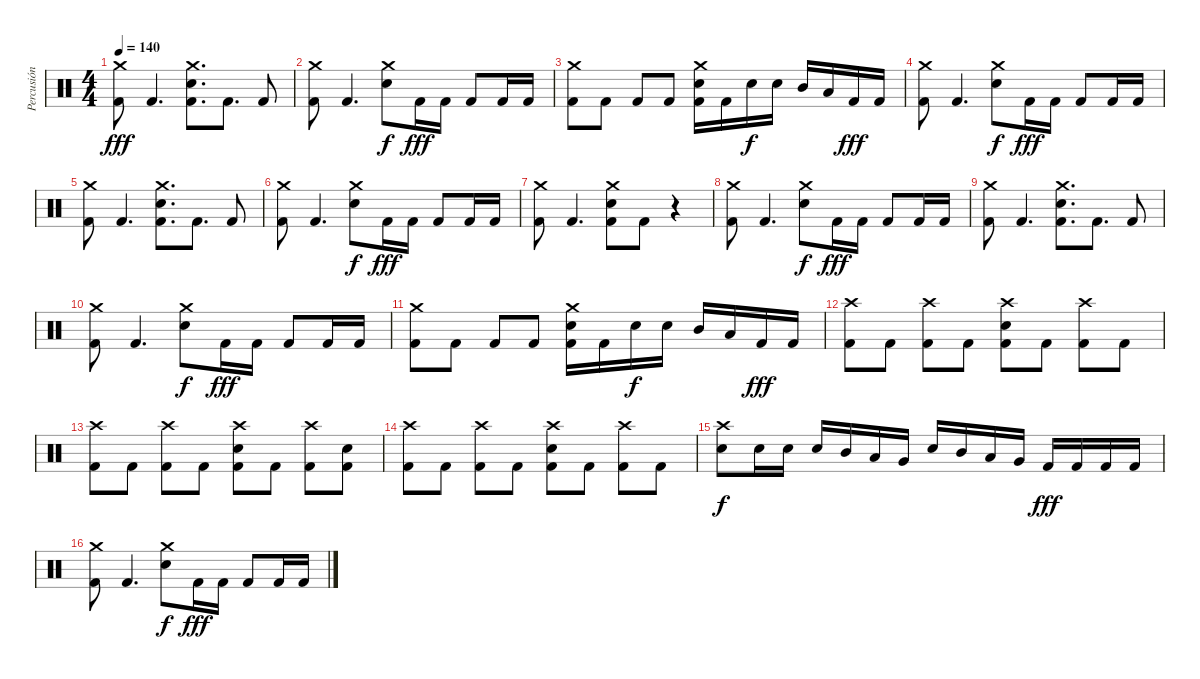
\track ("Percusión" "Percusión") {instrument percussion}
\staff {score}
\articulation defaults
\ts (4 4)
\tempo 140
\clef neutral
\ks c
("Crash medium (hit)" "Kick (hit) 2").8{dy fff} "Kick (hit) 2".4{d} ("Crash medium (hit)" "Electric Snare (hit)" "Kick (hit) 2").8{d} "Kick (hit) 2".8{d} "Kick (hit) 2".8 |
("Crash medium (hit)" "Kick (hit) 2").8 "Kick (hit) 2".4{d} ("Crash medium (hit)" "Electric Snare (hit)").8{dy f} "Kick (hit) 2".16{dy fff} "Kick (hit) 2".16 "Kick (hit) 2".8 "Kick (hit) 2".16 "Kick (hit) 2".16 |
("Crash medium (hit)" "Kick (hit) 2").8 "Kick (hit) 2".8 "Kick (hit) 2".8 "Kick (hit) 2".8 ("Crash medium (hit)" "Electric Snare (hit)" "Kick (hit) 2").16 "Kick (hit) 2".16 "Electric Snare (hit)".16{dy f} "Electric Snare (hit)".16 "Mid Tom (hit)".16 "Low Tom (hit)".16 "Kick (hit) 2".16{dy fff} "Kick (hit) 2".16 |
("Crash medium (hit)" "Kick (hit) 2").8 "Kick (hit) 2".4{d} ("Crash medium (hit)" "Electric Snare (hit)").8{dy f} "Kick (hit) 2".16{dy fff} "Kick (hit) 2".16 "Kick (hit) 2".8 "Kick (hit) 2".16 "Kick (hit) 2".16 |
("Crash medium (hit)" "Kick (hit) 2").8 "Kick (hit) 2".4{d} ("Crash medium (hit)" "Electric Snare (hit)" "Kick (hit) 2").8{d} "Kick (hit) 2".8{d} "Kick (hit) 2".8 |
("Crash medium (hit)" "Kick (hit) 2").8 "Kick (hit) 2".4{d} ("Crash medium (hit)" "Electric Snare (hit)").8{dy f} "Kick (hit) 2".16{dy fff} "Kick (hit) 2".16 "Kick (hit) 2".8 "Kick (hit) 2".16 "Kick (hit) 2".16 |
("Crash medium (hit)" "Kick (hit) 2").8 "Kick (hit) 2".4{d} ("Crash medium (hit)" "Electric Snare (hit)" "Kick (hit) 2").8 "Kick (hit) 2".8 r.4 |
("Crash medium (hit)" "Kick (hit) 2").8 "Kick (hit) 2".4{d} ("Crash medium (hit)" "Electric Snare (hit)").8{dy f} "Kick (hit) 2".16{dy fff} "Kick (hit) 2".16 "Kick (hit) 2".8 "Kick (hit) 2".16 "Kick (hit) 2".16 |
("Crash medium (hit)" "Kick (hit) 2").8 "Kick (hit) 2".4{d} ("Crash medium (hit)" "Electric Snare (hit)" "Kick (hit) 2").8{d} "Kick (hit) 2".8{d} "Kick (hit) 2".8 |
("Crash medium (hit)" "Kick (hit) 2").8 "Kick (hit) 2".4{d} ("Crash medium (hit)" "Electric Snare (hit)").8{dy f} "Kick (hit) 2".16{dy fff} "Kick (hit) 2".16 "Kick (hit) 2".8 "Kick (hit) 2".16 "Kick (hit) 2".16 |
("Crash medium (hit)" "Kick (hit) 2").8 "Kick (hit) 2".8 "Kick (hit) 2".8 "Kick (hit) 2".8 ("Crash medium (hit)" "Electric Snare (hit)" "Kick (hit) 2").16 "Kick (hit) 2".16 "Electric Snare (hit)".16{dy f} "Electric Snare (hit)".16 "Mid Tom (hit)".16 "Low Tom (hit)".16 "Kick (hit) 2".16{dy fff} "Kick (hit) 2".16 |
("Crash high (hit)" "Kick (hit) 2").8 "Kick (hit) 2".8 ("Crash high (hit)" "Kick (hit) 2").8 "Kick (hit) 2".8 ("Crash high (hit)" "Electric Snare (hit)" "Kick (hit) 2").8 "Kick (hit) 2".8 ("Crash high (hit)" "Kick (hit) 2").8 "Kick (hit) 2".8 |
("Crash high (hit)" "Kick (hit) 2").8 "Kick (hit) 2".8 ("Crash high (hit)" "Kick (hit) 2").8 "Kick (hit) 2".8 ("Crash high (hit)" "Electric Snare (hit)" "Kick (hit) 2").8 "Kick (hit) 2".8 ("Crash high (hit)" "Kick (hit) 2").8 ("Electric Snare (hit)" "Kick (hit) 2").8 |
("Crash high (hit)" "Kick (hit) 2").8 "Kick (hit) 2".8 ("Crash high (hit)" "Kick (hit) 2").8 "Kick (hit) 2".8 ("Crash high (hit)" "Electric Snare (hit)" "Kick (hit) 2").8 "Kick (hit) 2".8 ("Crash high (hit)" "Kick (hit) 2").8 "Kick (hit) 2".8 |
("Crash high (hit)" "Electric Snare (hit)").8{dy f} "Electric Snare (hit)".16 "Electric Snare (hit)".16 "Electric Snare (hit)".16 "Mid Tom (hit)".16 "Low Tom (hit)".16 "Very Low Tom (hit)".16 "Electric Snare (hit)".16 "Mid Tom (hit)".16 "Low Tom (hit)".16 "Very Low Tom (hit)".16 "Kick (hit) 2".16{dy fff} "Kick (hit) 2".16 "Kick (hit) 2".16 "Kick (hit) 2".16 |
("Crash medium (hit)" "Kick (hit) 2").8 "Kick (hit) 2".4{d} ("Crash medium (hit)" "Electric Snare (hit)").8{dy f} "Kick (hit) 2".16{dy fff} "Kick (hit) 2".16 "Kick (hit) 2".8 "Kick (hit) 2".16 "Kick (hit) 2".16
